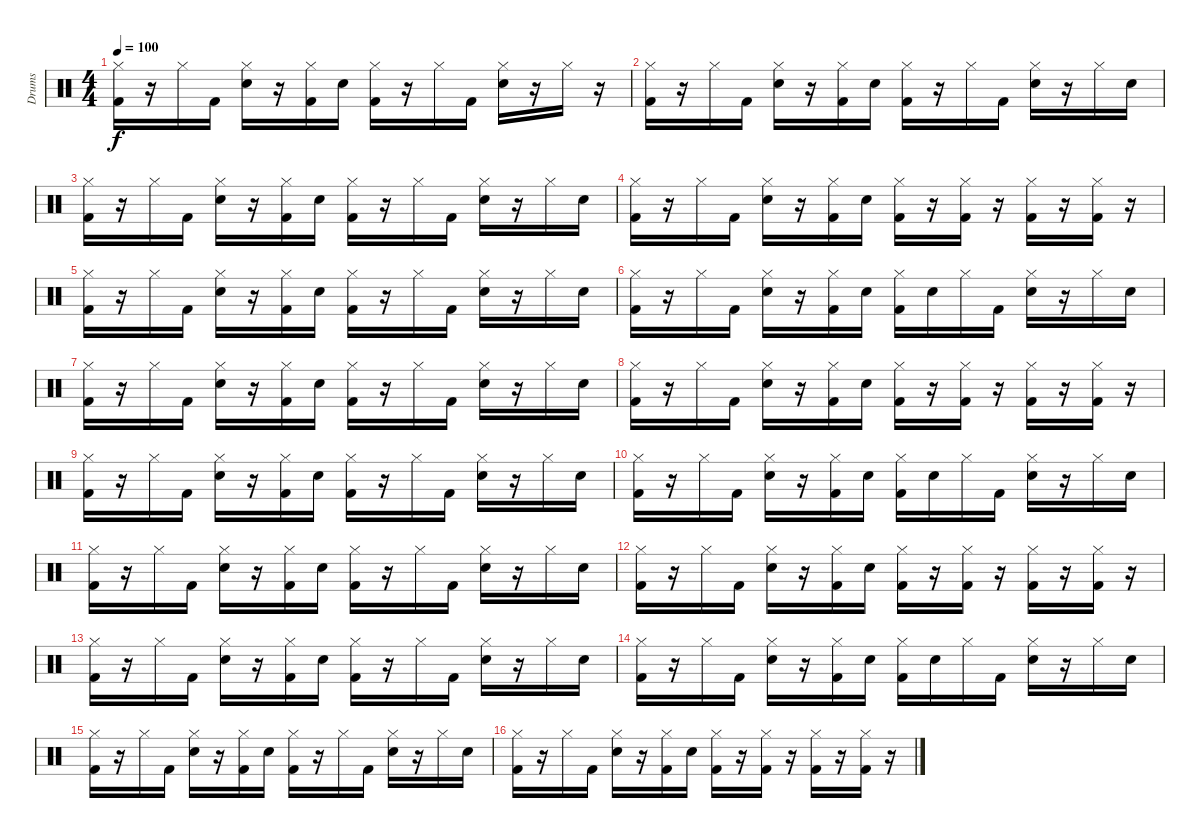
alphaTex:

\track ("Drums" "Drums") {instrument percussion}
\staff {score}
\articulation defaults
\ts (4 4)
\tempo 100
\clef neutral
\ks c
("Hi-Hat (closed)" "Kick (hit) 2").16{dy f} r.16 "Hi-Hat (closed)".16 "Kick (hit) 2".16 ("Hi-Hat (closed)" "Snare (hit) 2").16 r.16 ("Hi-Hat (closed)" "Kick (hit) 2").16 "Snare (hit) 2".16 ("Hi-Hat (closed)" "Kick (hit) 2").16 r.16 "Hi-Hat (closed)".16 "Kick (hit) 2".16 ("Hi-Hat (closed)" "Snare (hit) 2").16 r.16 "Hi-Hat (closed)".16 r.16 |
("Hi-Hat (closed)" "Kick (hit) 2").16 r.16 "Hi-Hat (closed)".16 "Kick (hit) 2".16 ("Hi-Hat (closed)" "Snare (hit) 2").16 r.16 ("Hi-Hat (closed)" "Kick (hit) 2").16 "Snare (hit) 2".16 ("Hi-Hat (closed)" "Kick (hit) 2").16 r.16 "Hi-Hat (closed)".16 "Kick (hit) 2".16 ("Hi-Hat (closed)" "Snare (hit) 2").16 r.16 "Hi-Hat (closed)".16 "Snare (hit) 2".16 |
("Hi-Hat (closed)" "Kick (hit) 2").16 r.16 "Hi-Hat (closed)".16 "Kick (hit) 2".16 ("Hi-Hat (closed)" "Snare (hit) 2").16 r.16 ("Hi-Hat (closed)" "Kick (hit) 2").16 "Snare (hit) 2".16 ("Hi-Hat (closed)" "Kick (hit) 2").16 r.16 "Hi-Hat (closed)".16 "Kick (hit) 2".16 ("Hi-Hat (closed)" "Snare (hit) 2").16 r.16 "Hi-Hat (closed)".16 "Snare (hit) 2".16 |
("Hi-Hat (closed)" "Kick (hit) 2").16 r.16 "Hi-Hat (closed)".16 "Kick (hit) 2".16 ("Hi-Hat (closed)" "Snare (hit) 2").16 r.16 ("Hi-Hat (closed)" "Kick (hit) 2").16 "Snare (hit) 2".16 ("Hi-Hat (closed)" "Kick (hit) 2").16 r.16 ("Hi-Hat (closed)" "Kick (hit) 2").16 r.16 ("Hi-Hat (closed)" "Kick (hit) 2").16 r.16 ("Hi-Hat (closed)" "Kick (hit) 2").16 r.16 |
("Hi-Hat (closed)" "Kick (hit) 2").16 r.16 "Hi-Hat (closed)".16 "Kick (hit) 2".16 ("Hi-Hat (closed)" "Snare (hit) 2").16 r.16 ("Hi-Hat (closed)" "Kick (hit) 2").16 "Snare (hit) 2".16 ("Hi-Hat (closed)" "Kick (hit) 2").16 r.16 "Hi-Hat (closed)".16 "Kick (hit) 2".16 ("Hi-Hat (closed)" "Snare (hit) 2").16 r.16 "Hi-Hat (closed)".16 "Snare (hit) 2".16 |
("Hi-Hat (closed)" "Kick (hit) 2").16 r.16 "Hi-Hat (closed)".16 "Kick (hit) 2".16 ("Hi-Hat (closed)" "Snare (hit) 2").16 r.16 ("Hi-Hat (closed)" "Kick (hit) 2").16 "Snare (hit) 2".16 ("Hi-Hat (closed)" "Kick (hit) 2").16 "Snare (hit) 2".16 "Hi-Hat (closed)".16 "Kick (hit) 2".16 ("Hi-Hat (closed)" "Snare (hit) 2").16 r.16 "Hi-Hat (closed)".16 "Snare (hit) 2".16 |
("Hi-Hat (closed)" "Kick (hit) 2").16 r.16 "Hi-Hat (closed)".16 "Kick (hit) 2".16 ("Hi-Hat (closed)" "Snare (hit) 2").16 r.16 ("Hi-Hat (closed)" "Kick (hit) 2").16 "Snare (hit) 2".16 ("Hi-Hat (closed)" "Kick (hit) 2").16 r.16 "Hi-Hat (closed)".16 "Kick (hit) 2".16 ("Hi-Hat (closed)" "Snare (hit) 2").16 r.16 "Hi-Hat (closed)".16 "Snare (hit) 2".16 |
("Hi-Hat (closed)" "Kick (hit) 2").16 r.16 "Hi-Hat (closed)".16 "Kick (hit) 2".16 ("Hi-Hat (closed)" "Snare (hit) 2").16 r.16 ("Hi-Hat (closed)" "Kick (hit) 2").16 "Snare (hit) 2".16 ("Hi-Hat (closed)" "Kick (hit) 2").16 r.16 ("Hi-Hat (closed)" "Kick (hit) 2").16 r.16 ("Hi-Hat (closed)" "Kick (hit) 2").16 r.16 ("Hi-Hat (closed)" "Kick (hit) 2").16 r.16 |
("Hi-Hat (closed)" "Kick (hit) 2").16 r.16 "Hi-Hat (closed)".16 "Kick (hit) 2".16 ("Hi-Hat (closed)" "Snare (hit) 2").16 r.16 ("Hi-Hat (closed)" "Kick (hit) 2").16 "Snare (hit) 2".16 ("Hi-Hat (closed)" "Kick (hit) 2").16 r.16 "Hi-Hat (closed)".16 "Kick (hit) 2".16 ("Hi-Hat (closed)" "Snare (hit) 2").16 r.16 "Hi-Hat (closed)".16 "Snare (hit) 2".16 |
("Hi-Hat (closed)" "Kick (hit) 2").16 r.16 "Hi-Hat (closed)".16 "Kick (hit) 2".16 ("Hi-Hat (closed)" "Snare (hit) 2").16 r.16 ("Hi-Hat (closed)" "Kick (hit) 2").16 "Snare (hit) 2".16 ("Hi-Hat (closed)" "Kick (hit) 2").16 "Snare (hit) 2".16 "Hi-Hat (closed)".16 "Kick (hit) 2".16 ("Hi-Hat (closed)" "Snare (hit) 2").16 r.16 "Hi-Hat (closed)".16 "Snare (hit) 2".16 |
("Hi-Hat (closed)" "Kick (hit) 2").16 r.16 "Hi-Hat (closed)".16 "Kick (hit) 2".16 ("Hi-Hat (closed)" "Snare (hit) 2").16 r.16 ("Hi-Hat (closed)" "Kick (hit) 2").16 "Snare (hit) 2".16 ("Hi-Hat (closed)" "Kick (hit) 2").16 r.16 "Hi-Hat (closed)".16 "Kick (hit) 2".16 ("Hi-Hat (closed)" "Snare (hit) 2").16 r.16 "Hi-Hat (closed)".16 "Snare (hit) 2".16 |
("Hi-Hat (closed)" "Kick (hit) 2").16 r.16 "Hi-Hat (closed)".16 "Kick (hit) 2".16 ("Hi-Hat (closed)" "Snare (hit) 2").16 r.16 ("Hi-Hat (closed)" "Kick (hit) 2").16 "Snare (hit) 2".16 ("Hi-Hat (closed)" "Kick (hit) 2").16 r.16 ("Hi-Hat (closed)" "Kick (hit) 2").16 r.16 ("Hi-Hat (closed)" "Kick (hit) 2").16 r.16 ("Hi-Hat (closed)" "Kick (hit) 2").16 r.16 |
("Hi-Hat (closed)" "Kick (hit) 2").16 r.16 "Hi-Hat (closed)".16 "Kick (hit) 2".16 ("Hi-Hat (closed)" "Snare (hit) 2").16 r.16 ("Hi-Hat (closed)" "Kick (hit) 2").16 "Snare (hit) 2".16 ("Hi-Hat (closed)" "Kick (hit) 2").16 r.16 "Hi-Hat (closed)".16 "Kick (hit) 2".16 ("Hi-Hat (closed)" "Snare (hit) 2").16 r.16 "Hi-Hat (closed)".16 "Snare (hit) 2".16 |
("Hi-Hat (closed)" "Kick (hit) 2").16 r.16 "Hi-Hat (closed)".16 "Kick (hit) 2".16 ("Hi-Hat (closed)" "Snare (hit) 2").16 r.16 ("Hi-Hat (closed)" "Kick (hit) 2").16 "Snare (hit) 2".16 ("Hi-Hat (closed)" "Kick (hit) 2").16 "Snare (hit) 2".16 "Hi-Hat (closed)".16 "Kick (hit) 2".16 ("Hi-Hat (closed)" "Snare (hit) 2").16 r.16 "Hi-Hat (closed)".16 "Snare (hit) 2".16 |
("Hi-Hat (closed)" "Kick (hit) 2").16 r.16 "Hi-Hat (closed)".16 "Kick (hit) 2".16 ("Hi-Hat (closed)" "Snare (hit) 2").16 r.16 ("Hi-Hat (closed)" "Kick (hit) 2").16 "Snare (hit) 2".16 ("Hi-Hat (closed)" "Kick (hit) 2").16 r.16 "Hi-Hat (closed)".16 "Kick (hit) 2".16 ("Hi-Hat (closed)" "Snare (hit) 2").16 r.16 "Hi-Hat (closed)".16 "Snare (hit) 2".16 |
("Hi-Hat (closed)" "Kick (hit) 2").16 r.16 "Hi-Hat (closed)".16 "Kick (hit) 2".16 ("Hi-Hat (closed)" "Snare (hit) 2").16 r.16 ("Hi-Hat (closed)" "Kick (hit) 2").16 "Snare (hit) 2".16 ("Hi-Hat (closed)" "Kick (hit) 2").16 r.16 ("Hi-Hat (closed)" "Kick (hit) 2").16 r.16 ("Hi-Hat (closed)" "Kick (hit) 2").16 r.16 ("Hi-Hat (closed)" "Kick (hit) 2").16 r.16
